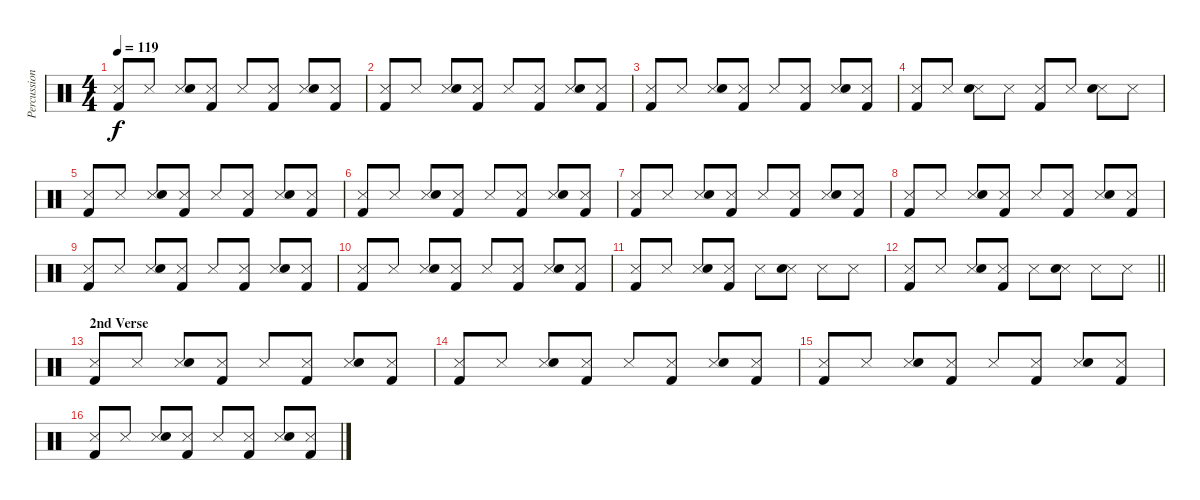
\track ("Percussion" "Percussion") {instrument percussion}
\staff {score}
\articulation defaults
\ts (4 4)
\tempo 119
\clef neutral
\ks c
("Snare (side stick) 3" "Kick (hit) 2").8{dy f} "Snare (side stick) 3".8 ("Snare (side stick) 3" "Snare (hit) 2").8 ("Snare (side stick) 3" "Kick (hit) 2").8 "Snare (side stick) 3".8 ("Snare (side stick) 3" "Kick (hit) 2").8 ("Snare (side stick) 3" "Snare (hit) 2").8 ("Snare (side stick) 3" "Kick (hit) 2").8 |
("Snare (side stick) 3" "Kick (hit) 2").8 "Snare (side stick) 3".8 ("Snare (side stick) 3" "Snare (hit) 2").8 ("Snare (side stick) 3" "Kick (hit) 2").8 "Snare (side stick) 3".8 ("Snare (side stick) 3" "Kick (hit) 2").8 ("Snare (side stick) 3" "Snare (hit) 2").8 ("Snare (side stick) 3" "Kick (hit) 2").8 |
("Snare (side stick) 3" "Kick (hit) 2").8 "Snare (side stick) 3".8 ("Snare (side stick) 3" "Snare (hit) 2").8 ("Snare (side stick) 3" "Kick (hit) 2").8 "Snare (side stick) 3".8 ("Snare (side stick) 3" "Kick (hit) 2").8 ("Snare (side stick) 3" "Snare (hit) 2").8 ("Snare (side stick) 3" "Kick (hit) 2").8 |
("Snare (side stick) 3" "Kick (hit) 2").8 "Snare (side stick) 3".8 ("Snare (side stick) 3" "Snare (hit) 2").8 "Snare (side stick) 3".8 ("Snare (side stick) 3" "Kick (hit) 2").8 "Snare (side stick) 3".8 ("Snare (side stick) 3" "Snare (hit) 2").8 "Snare (side stick) 3".8 |
("Snare (side stick) 3" "Kick (hit) 2").8 "Snare (side stick) 3".8 ("Snare (side stick) 3" "Snare (hit) 2").8 ("Snare (side stick) 3" "Kick (hit) 2").8 "Snare (side stick) 3".8 ("Snare (side stick) 3" "Kick (hit) 2").8 ("Snare (side stick) 3" "Snare (hit) 2").8 ("Snare (side stick) 3" "Kick (hit) 2").8 |
("Snare (side stick) 3" "Kick (hit) 2").8 "Snare (side stick) 3".8 ("Snare (side stick) 3" "Snare (hit) 2").8 ("Snare (side stick) 3" "Kick (hit) 2").8 "Snare (side stick) 3".8 ("Snare (side stick) 3" "Kick (hit) 2").8 ("Snare (side stick) 3" "Snare (hit) 2").8 ("Snare (side stick) 3" "Kick (hit) 2").8 |
("Snare (side stick) 3" "Kick (hit) 2").8 "Snare (side stick) 3".8 ("Snare (side stick) 3" "Snare (hit) 2").8 ("Snare (side stick) 3" "Kick (hit) 2").8 "Snare (side stick) 3".8 ("Snare (side stick) 3" "Kick (hit) 2").8 ("Snare (side stick) 3" "Snare (hit) 2").8 ("Snare (side stick) 3" "Kick (hit) 2").8 |
("Snare (side stick) 3" "Kick (hit) 2").8 "Snare (side stick) 3".8 ("Snare (side stick) 3" "Snare (hit) 2").8 ("Snare (side stick) 3" "Kick (hit) 2").8 "Snare (side stick) 3".8 ("Snare (side stick) 3" "Kick (hit) 2").8 ("Snare (side stick) 3" "Snare (hit) 2").8 ("Snare (side stick) 3" "Kick (hit) 2").8 |
("Snare (side stick) 3" "Kick (hit) 2").8 "Snare (side stick) 3".8 ("Snare (side stick) 3" "Snare (hit) 2").8 ("Snare (side stick) 3" "Kick (hit) 2").8 "Snare (side stick) 3".8 ("Snare (side stick) 3" "Kick (hit) 2").8 ("Snare (side stick) 3" "Snare (hit) 2").8 ("Snare (side stick) 3" "Kick (hit) 2").8 |
("Snare (side stick) 3" "Kick (hit) 2").8 "Snare (side stick) 3".8 ("Snare (side stick) 3" "Snare (hit) 2").8 ("Snare (side stick) 3" "Kick (hit) 2").8 "Snare (side stick) 3".8 ("Snare (side stick) 3" "Kick (hit) 2").8 ("Snare (side stick) 3" "Snare (hit) 2").8 ("Snare (side stick) 3" "Kick (hit) 2").8 |
("Snare (side stick) 3" "Kick (hit) 2").8 "Snare (side stick) 3".8 ("Snare (side stick) 3" "Snare (hit) 2").8 ("Snare (side stick) 3" "Kick (hit) 2").8 "Snare (side stick) 3".8 ("Snare (side stick) 3" "Snare (hit) 2").8 "Snare (side stick) 3".8 "Snare (side stick) 3".8 |
\barLineRight lightlight
("Snare (side stick) 3" "Kick (hit) 2").8 "Snare (side stick) 3".8 ("Snare (side stick) 3" "Snare (hit) 2").8 ("Snare (side stick) 3" "Kick (hit) 2").8 "Snare (side stick) 3".8 ("Snare (side stick) 3" "Snare (hit) 2").8 "Snare (side stick) 3".8 "Snare (side stick) 3".8 |
\section ("" "2nd Verse")
("Snare (side stick) 3" "Kick (hit) 2").8 "Snare (side stick) 3".8 ("Snare (side stick) 3" "Snare (hit) 2").8 ("Snare (side stick) 3" "Kick (hit) 2").8 "Snare (side stick) 3".8 ("Snare (side stick) 3" "Kick (hit) 2").8 ("Snare (side stick) 3" "Snare (hit) 2").8 ("Snare (side stick) 3" "Kick (hit) 2").8 |
("Snare (side stick) 3" "Kick (hit) 2").8 "Snare (side stick) 3".8 ("Snare (side stick) 3" "Snare (hit) 2").8 ("Snare (side stick) 3" "Kick (hit) 2").8 "Snare (side stick) 3".8 ("Snare (side stick) 3" "Kick (hit) 2").8 ("Snare (side stick) 3" "Snare (hit) 2").8 ("Snare (side stick) 3" "Kick (hit) 2").8 |
("Snare (side stick) 3" "Kick (hit) 2").8 "Snare (side stick) 3".8 ("Snare (side stick) 3" "Snare (hit) 2").8 ("Snare (side stick) 3" "Kick (hit) 2").8 "Snare (side stick) 3".8 ("Snare (side stick) 3" "Kick (hit) 2").8 ("Snare (side stick) 3" "Snare (hit) 2").8 ("Snare (side stick) 3" "Kick (hit) 2").8 |
("Snare (side stick) 3" "Kick (hit) 2").8 "Snare (side stick) 3".8 ("Snare (side stick) 3" "Snare (hit) 2").8 ("Snare (side stick) 3" "Kick (hit) 2").8 "Snare (side stick) 3".8 ("Snare (side stick) 3" "Kick (hit) 2").8 ("Snare (side stick) 3" "Snare (hit) 2").8 ("Snare (side stick) 3" "Kick (hit) 2").8
